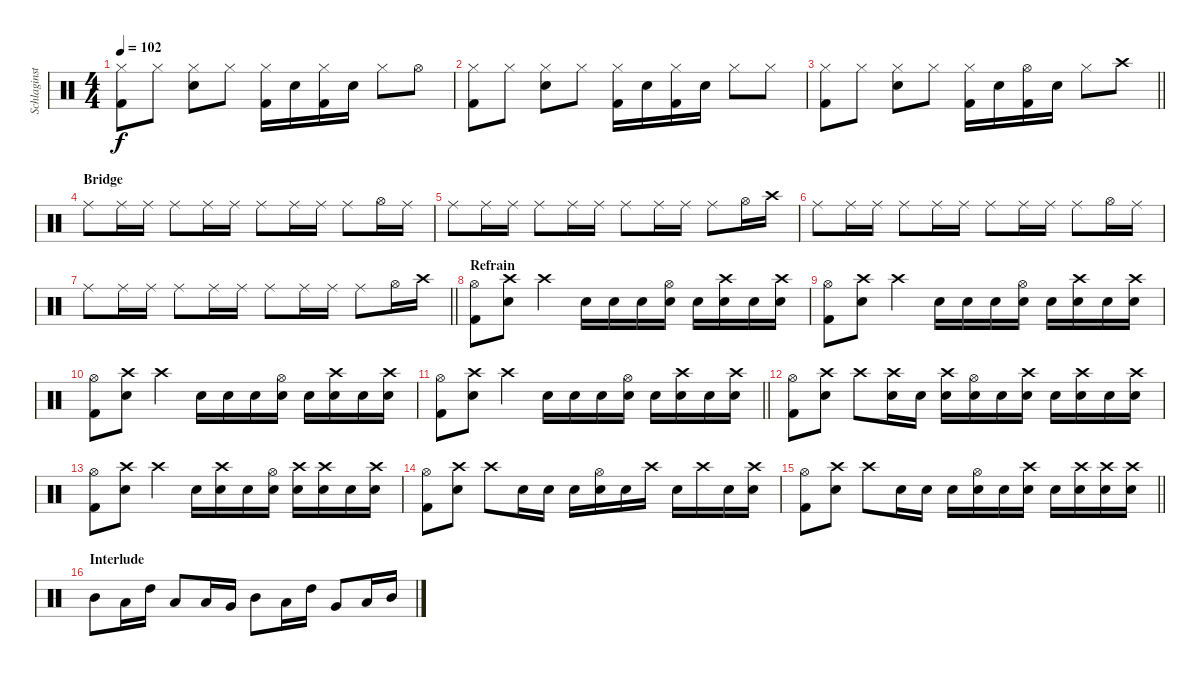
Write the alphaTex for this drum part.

\track ("Schlaginstrumente - Auswahl" "Schlaginst") {instrument percussion}
\staff {score}
\articulation defaults
\ts (4 4)
\tempo 102
\clef neutral
\ks c
("Hi-Hat (closed)" "Kick (hit) 2").8{dy f} "Hi-Hat (closed)".8 ("Hi-Hat (closed)" "Electric Snare (hit)").8 "Hi-Hat (closed)".8 ("Hi-Hat (closed)" "Kick (hit) 2").16 "Electric Snare (hit)".16 ("Hi-Hat (closed)" "Kick (hit) 2").16 "Electric Snare (hit)".16 "Hi-Hat (closed)".8 "Hi-Hat (open)".8 |
("Hi-Hat (closed)" "Kick (hit) 2").8 "Hi-Hat (closed)".8 ("Hi-Hat (closed)" "Electric Snare (hit)").8 "Hi-Hat (closed)".8 ("Hi-Hat (closed)" "Kick (hit) 2").16 "Electric Snare (hit)".16 ("Hi-Hat (closed)" "Kick (hit) 2").16 "Electric Snare (hit)".16 "Hi-Hat (closed)".8 "Hi-Hat (closed)".8 |
\barLineRight lightlight
("Hi-Hat (closed)" "Kick (hit) 2").8 "Hi-Hat (closed)".8 ("Hi-Hat (closed)" "Electric Snare (hit)").8 "Hi-Hat (closed)".8 ("Hi-Hat (closed)" "Kick (hit) 2").16 "Electric Snare (hit)".16 ("Hi-Hat (open)" "Kick (hit) 2").16 "Electric Snare (hit)".16 "Hi-Hat (closed)".8 "Crash high (hit)".8 |
\section ("" "Bridge")
"Ride (middle)".8 "Ride (middle)".16 "Ride (middle)".16 "Ride (middle)".8 "Ride (middle)".16 "Ride (middle)".16 "Ride (middle)".8 "Ride (middle)".16 "Ride (middle)".16 "Ride (middle)".8 "Hi-Hat (open)".16 "Ride (middle)".16 |
"Ride (middle)".8 "Ride (middle)".16 "Ride (middle)".16 "Ride (middle)".8 "Ride (middle)".16 "Ride (middle)".16 "Ride (middle)".8 "Ride (middle)".16 "Ride (middle)".16 "Ride (middle)".8 "Hi-Hat (open)".16 "Crash high (hit)".16 |
"Ride (middle)".8 "Ride (middle)".16 "Ride (middle)".16 "Ride (middle)".8 "Ride (middle)".16 "Ride (middle)".16 "Ride (middle)".8 "Ride (middle)".16 "Ride (middle)".16 "Ride (middle)".8 "Hi-Hat (open)".16 "Ride (middle)".16 |
\barLineRight lightlight "Ride (middle)".8 "Ride (middle)".16 "Ride (middle)".16 "Ride (middle)".8 "Ride (middle)".16 "Ride (middle)".16 "Ride (middle)".8 "Ride (middle)".16 "Ride (middle)".16 "Ride (middle)".8 "Hi-Hat (open)".16 "Crash high (hit)".16
|
\section ("" "Refrain")
("Hi-Hat (open)" "Kick (hit) 2").8 ("Crash high (hit)" "Electric Snare (hit)").8 "Crash high (hit)".4 "Snare (hit) 2".16 "Snare (hit) 2".16 "Snare (hit) 2".16 ("Snare (hit) 2" "Hi-Hat (open)").16 "Snare (hit) 2".16 ("Snare (hit) 2" "Crash high (hit)").16 "Snare (hit) 2".16 ("Snare (hit) 2" "Crash high (hit)").16 |
("Hi-Hat (open)" "Kick (hit) 2").8 ("Crash high (hit)" "Electric Snare (hit)").8 "Crash high (hit)".4 "Snare (hit) 2".16 "Snare (hit) 2".16 "Snare (hit) 2".16 ("Snare (hit) 2" "Hi-Hat (open)").16 "Snare (hit) 2".16 ("Snare (hit) 2" "Crash high (hit)").16 "Snare (hit) 2".16 ("Snare (hit) 2" "Crash high (hit)").16 |
("Hi-Hat (open)" "Kick (hit) 2").8 ("Crash high (hit)" "Electric Snare (hit)").8 "Crash high (hit)".4 "Snare (hit) 2".16 "Snare (hit) 2".16 "Snare (hit) 2".16 ("Snare (hit) 2" "Hi-Hat (open)").16 "Snare (hit) 2".16 ("Snare (hit) 2" "Crash high (hit)").16 "Snare (hit) 2".16 ("Snare (hit) 2" "Crash high (hit)").16 |
\barLineRight lightlight
("Hi-Hat (open)" "Kick (hit) 2").8 ("Crash high (hit)" "Electric Snare (hit)").8 "Crash high (hit)".4 "Snare (hit) 2".16 "Snare (hit) 2".16 "Snare (hit) 2".16 ("Snare (hit) 2" "Hi-Hat (open)").16 "Snare (hit) 2".16 ("Snare (hit) 2" "Crash high (hit)").16 "Snare (hit) 2".16 ("Snare (hit) 2" "Crash high (hit)").16 |
("Hi-Hat (open)" "Kick (hit) 2").8 ("Crash high (hit)" "Electric Snare (hit)").8 "Crash high (hit)".8 ("Snare (hit) 2" "Crash high (hit)").16 "Snare (hit) 2".16 ("Snare (hit) 2" "Crash high (hit)").16 ("Snare (hit) 2" "Hi-Hat (open)").16 "Snare (hit) 2".16 ("Snare (hit) 2" "Crash high (hit)").16 "Snare (hit) 2".16 ("Snare (hit) 2" "Crash high (hit)").16 "Snare (hit) 2".16 ("Snare (hit) 2" "Crash high (hit)").16 |
("Hi-Hat (open)" "Kick (hit) 2").8 ("Crash high (hit)" "Electric Snare (hit)").8 "Crash high (hit)".4 "Snare (hit) 2".16 ("Snare (hit) 2" "Crash high (hit)").16 "Snare (hit) 2".16 ("Snare (hit) 2" "Hi-Hat (open)").16 ("Snare (hit) 2" "Crash high (hit)").16 ("Snare (hit) 2" "Crash high (hit)").16 "Snare (hit) 2".16 ("Snare (hit) 2" "Crash high (hit)").16 |
("Hi-Hat (open)" "Kick (hit) 2").8 ("Crash high (hit)" "Electric Snare (hit)").8 "Crash high (hit)".8 "Snare (hit) 2".16 "Snare (hit) 2".16 "Snare (hit) 2".16 ("Snare (hit) 2" "Hi-Hat (open)").16 "Snare (hit) 2".16 "Crash high (hit)".16 "Snare (hit) 2".16 "Crash high (hit)".16 "Snare (hit) 2".16 ("Snare (hit) 2" "Crash high (hit)").16 |
\barLineRight lightlight
("Hi-Hat (open)" "Kick (hit) 2").8 ("Crash high (hit)" "Electric Snare (hit)").8 "Crash high (hit)".8 "Snare (hit) 2".16 "Snare (hit) 2".16 "Snare (hit) 2".16 ("Snare (hit) 2" "Hi-Hat (open)").16 "Snare (hit) 2".16 ("Snare (hit) 2" "Crash high (hit)").16 "Snare (hit) 2".16 ("Snare (hit) 2" "Crash high (hit)").16 ("Snare (hit) 2" "Crash high (hit)").16 ("Snare (hit) 2" "Crash high (hit)").16 |
\section ("" "Interlude")
"Mid Tom (hit)".8 "Low Tom (hit)".16 "High Tom (hit)".16 "Low Floor Tom (hit)".8 "Low Tom (hit)".16 "Very Low Tom (hit)".16 "Mid Tom (hit)".8 "Low Tom (hit)".16 "High Tom (hit)".16 "Very Low Tom (hit)".8 "Low Tom (hit)".16 "Mid Tom (hit)".16
